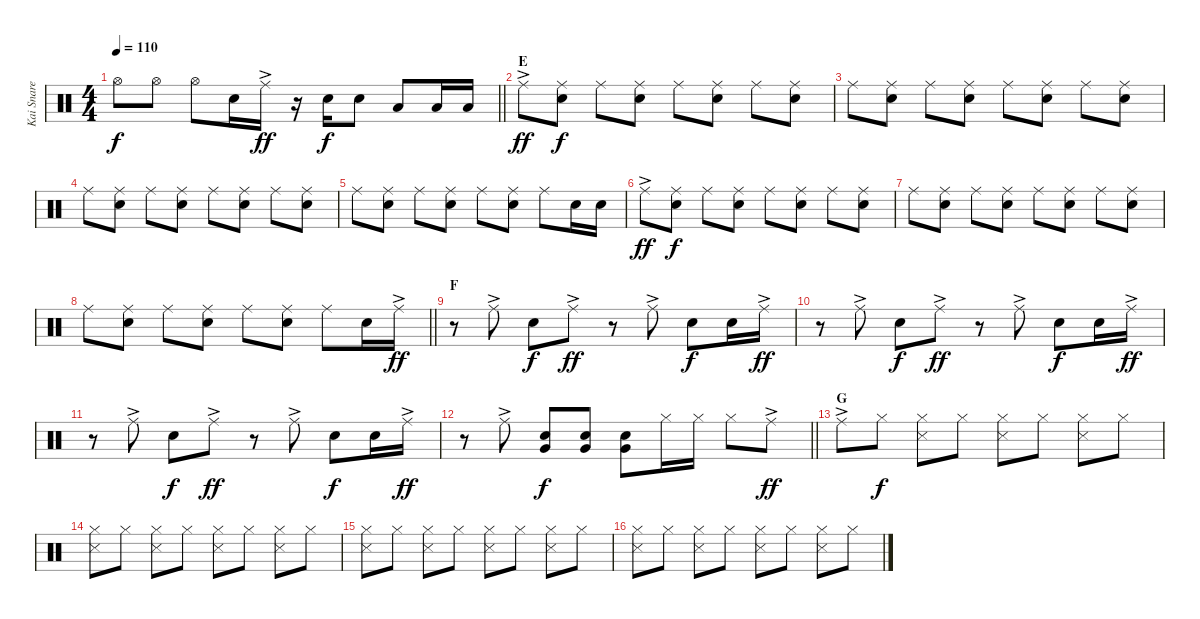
\track ("Kai Snare" "Kai Snare") {instrument percussion}
\staff {score}
\articulation defaults
\ts (4 4)
\tempo 110
\clef neutral
\barLineRight lightlight
\ks c "Hi-Hat (open)".8{dy f} "Hi-Hat (open)".8 "Hi-Hat (open)".8 "Snare (hit) 2".16 "Ride (middle)"{ac}.16{dy ff}
r.16 "Snare (hit) 2".16{dy f} "Snare (hit) 2".8 "Low Tom (hit)".8 "Low Tom (hit)".16 "Low Tom (hit)".16 |
\section ("" "E")
"Ride (middle)"{ac}.8{dy ff} ("Ride (middle)" "Snare (hit) 2").8{dy f} "Ride (middle)".8 ("Ride (middle)" "Snare (hit) 2").8 "Ride (middle)".8 ("Ride (middle)" "Snare (hit) 2").8 "Ride (middle)".8 ("Ride (middle)" "Snare (hit) 2").8 |
"Ride (middle)".8 ("Ride (middle)" "Snare (hit) 2").8 "Ride (middle)".8 ("Ride (middle)" "Snare (hit) 2").8 "Ride (middle)".8 ("Ride (middle)" "Snare (hit) 2").8 "Ride (middle)".8 ("Ride (middle)" "Snare (hit) 2").8 |
"Ride (middle)".8 ("Ride (middle)" "Snare (hit) 2").8 "Ride (middle)".8 ("Ride (middle)" "Snare (hit) 2").8 "Ride (middle)".8 ("Ride (middle)" "Snare (hit) 2").8 "Ride (middle)".8 ("Ride (middle)" "Snare (hit) 2").8 |
"Ride (middle)".8 ("Ride (middle)" "Snare (hit) 2").8 "Ride (middle)".8 ("Ride (middle)" "Snare (hit) 2").8 "Ride (middle)".8 ("Ride (middle)" "Snare (hit) 2").8 "Ride (middle)".8 "Snare (hit) 2".16 "Snare (hit) 2".16 |
"Ride (middle)"{ac}.8{dy ff} ("Ride (middle)" "Snare (hit) 2").8{dy f} "Ride (middle)".8 ("Ride (middle)" "Snare (hit) 2").8 "Ride (middle)".8 ("Ride (middle)" "Snare (hit) 2").8 "Ride (middle)".8 ("Ride (middle)" "Snare (hit) 2").8 |
"Ride (middle)".8 ("Ride (middle)" "Snare (hit) 2").8 "Ride (middle)".8 ("Ride (middle)" "Snare (hit) 2").8 "Ride (middle)".8 ("Ride (middle)" "Snare (hit) 2").8 "Ride (middle)".8 ("Ride (middle)" "Snare (hit) 2").8 |
\barLineRight lightlight "Ride (middle)".8
("Ride (middle)" "Snare (hit) 2").8 "Ride (middle)".8 ("Ride (middle)" "Snare (hit) 2").8 "Ride (middle)".8 ("Ride (middle)" "Snare (hit) 2").8 "Ride (middle)".8 "Snare (hit) 2".16 "Ride (middle)"{ac}.16{dy ff} |
\section ("" "F")
r.8 "Ride (middle)"{ac}.8 "Snare (hit) 2".8{dy f} "Ride (middle)"{ac}.8{dy ff} r.8 "Ride (middle)"{ac}.8 "Snare (hit) 2".8{dy f} "Snare (hit) 2".16 "Ride (middle)"{ac}.16{dy ff} |
r.8 "Ride (middle)"{ac}.8 "Snare (hit) 2".8{dy f} "Ride (middle)"{ac}.8{dy ff} r.8 "Ride (middle)"{ac}.8 "Snare (hit) 2".8{dy f} "Snare (hit) 2".16 "Ride (middle)"{ac}.16{dy ff} |
r.8 "Ride (middle)"{ac}.8 "Snare (hit) 2".8{dy f} "Ride (middle)"{ac}.8{dy ff} r.8 "Ride (middle)"{ac}.8 "Snare (hit) 2".8{dy f} "Snare (hit) 2".16 "Ride (middle)"{ac}.16{dy ff} |
\barLineRight lightlight
r.8 "Ride (middle)"{ac}.8 ("Very Low Tom (hit)" "Snare (hit) 2").8{dy f} ("Very Low Tom (hit)" "Snare (hit) 2").8 ("Very Low Tom (hit)" "Snare (hit) 2").8 "Hi-Hat (closed)".16 "Hi-Hat (closed)".16 "Hi-Hat (closed)".8 "Ride (middle)"{ac}.8{dy ff} |
\section ("" "G")
"Ride (middle)"{ac}.8 "Hi-Hat (closed)".8{dy f} ("Hi-Hat (closed)" "Snare (side stick) 3").8 "Hi-Hat (closed)".8 ("Hi-Hat (closed)" "Snare (side stick) 3").8 "Hi-Hat (closed)".8 ("Hi-Hat (closed)" "Snare (side stick) 3").8 "Hi-Hat (closed)".8 |
("Hi-Hat (closed)" "Snare (side stick) 3").8 "Hi-Hat (closed)".8 ("Hi-Hat (closed)" "Snare (side stick) 3").8 "Hi-Hat (closed)".8 ("Hi-Hat (closed)" "Snare (side stick) 3").8 "Hi-Hat (closed)".8 ("Hi-Hat (closed)" "Snare (side stick) 3").8 "Hi-Hat (closed)".8 |
("Hi-Hat (closed)" "Snare (side stick) 3").8 "Hi-Hat (closed)".8 ("Hi-Hat (closed)" "Snare (side stick) 3").8 "Hi-Hat (closed)".8 ("Hi-Hat (closed)" "Snare (side stick) 3").8 "Hi-Hat (closed)".8 ("Hi-Hat (closed)" "Snare (side stick) 3").8 "Hi-Hat (closed)".8 |
("Hi-Hat (closed)" "Snare (side stick) 3").8 "Hi-Hat (closed)".8 ("Hi-Hat (closed)" "Snare (side stick) 3").8 "Hi-Hat (closed)".8 ("Hi-Hat (closed)" "Snare (side stick) 3").8 "Hi-Hat (closed)".8 ("Hi-Hat (closed)" "Snare (side stick) 3").8 "Hi-Hat (closed)".8
